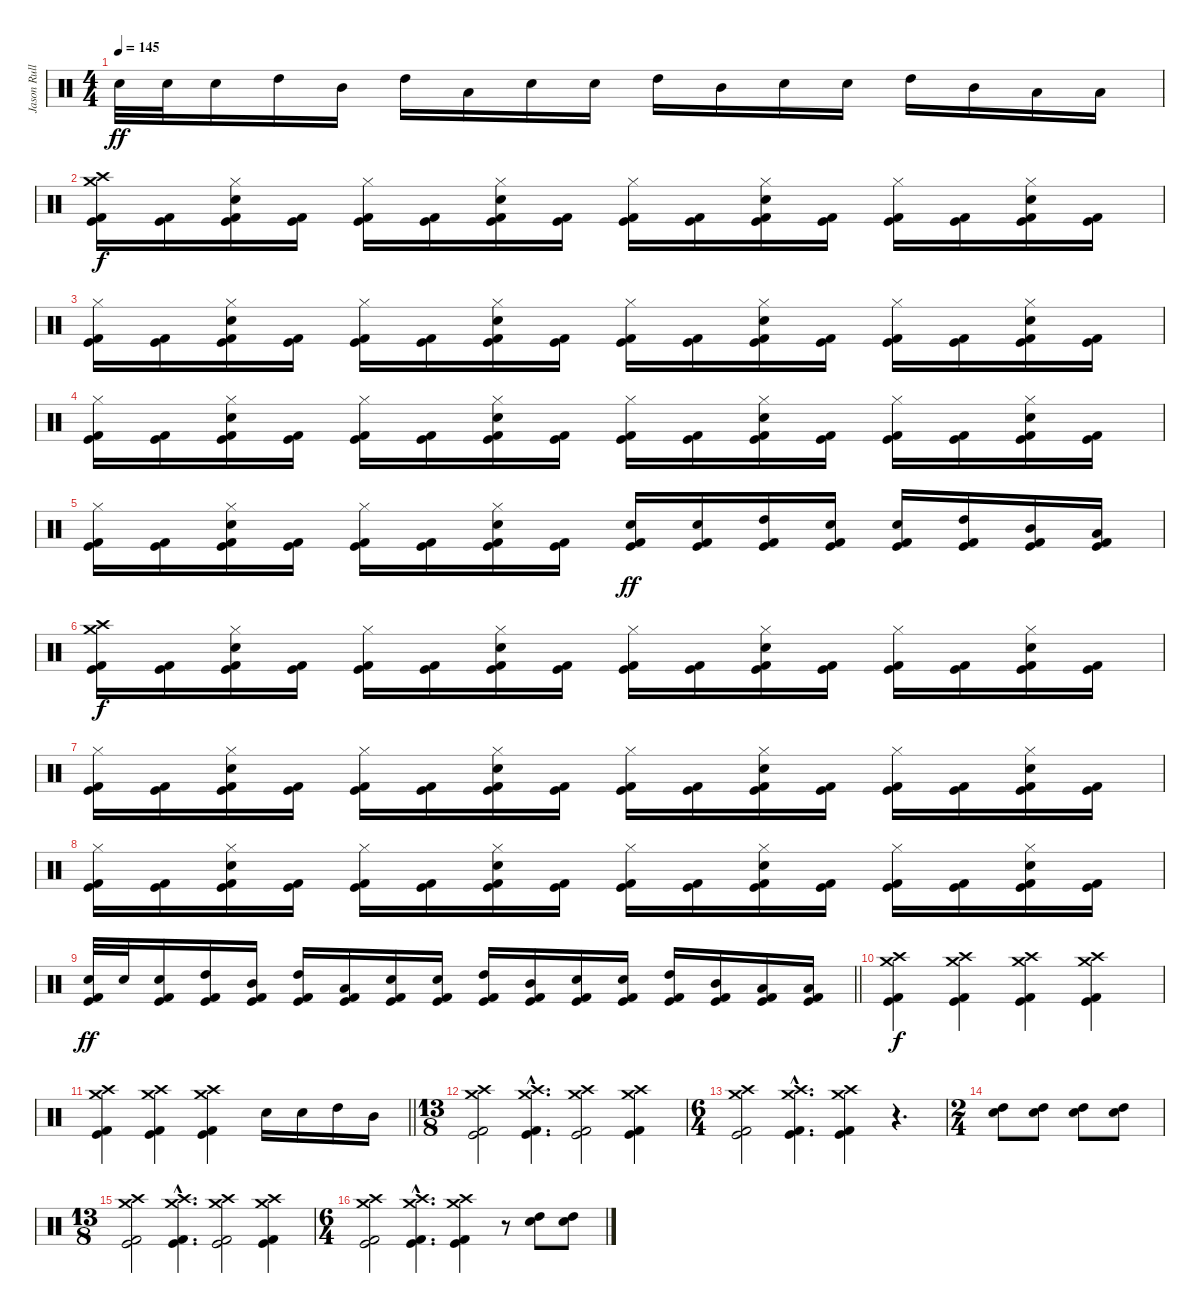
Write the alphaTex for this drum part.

\track ("Jason Rullo" "Jason Rull") {instrument percussion}
\staff {score}
\articulation defaults
\ts (4 4)
\tempo 145
\clef neutral
\ks c "Electric Snare (hit)".32{dy ff} "Electric Snare (hit)".32 "Electric Snare (hit)".16 "High Tom (hit)".16 "Mid Tom (hit)".16 "High Tom (hit)".16 "Low Tom (hit)".16 "Electric Snare (hit)".16 "Electric Snare (hit)".16 "High Tom (hit)".16 "Mid Tom (hit)".16 "Electric Snare (hit)".16 "Electric Snare (hit)".16 "High Tom (hit)".16 "Mid Tom (hit)".16 "Low Tom (hit)".16 "Low Tom (hit)".16
|
("Crash medium (hit)" "Crash high (hit)" "Kick (hit) 2" "Kick (hit)").16{dy f} ("Kick (hit) 2" "Kick (hit)").16 ("Hi-Hat (closed)" "Electric Snare (hit)" "Kick (hit) 2" "Kick (hit)").16 ("Kick (hit) 2" "Kick (hit)").16 ("Hi-Hat (closed)" "Kick (hit) 2" "Kick (hit)").16 ("Kick (hit) 2" "Kick (hit)").16 ("Hi-Hat (closed)" "Electric Snare (hit)" "Kick (hit) 2" "Kick (hit)").16 ("Kick (hit) 2" "Kick (hit)").16 ("Hi-Hat (closed)" "Kick (hit) 2" "Kick (hit)").16 ("Kick (hit) 2" "Kick (hit)").16 ("Hi-Hat (closed)" "Electric Snare (hit)" "Kick (hit) 2" "Kick (hit)").16 ("Kick (hit) 2" "Kick (hit)").16 ("Hi-Hat (closed)" "Kick (hit) 2" "Kick (hit)").16 ("Kick (hit) 2" "Kick (hit)").16 ("Hi-Hat (closed)" "Electric Snare (hit)" "Kick (hit) 2" "Kick (hit)").16 ("Kick (hit) 2" "Kick (hit)").16 |
("Hi-Hat (closed)" "Kick (hit) 2" "Kick (hit)").16 ("Kick (hit) 2" "Kick (hit)").16 ("Hi-Hat (closed)" "Electric Snare (hit)" "Kick (hit) 2" "Kick (hit)").16 ("Kick (hit) 2" "Kick (hit)").16 ("Hi-Hat (closed)" "Kick (hit) 2" "Kick (hit)").16 ("Kick (hit) 2" "Kick (hit)").16 ("Hi-Hat (closed)" "Electric Snare (hit)" "Kick (hit) 2" "Kick (hit)").16 ("Kick (hit) 2" "Kick (hit)").16 ("Hi-Hat (closed)" "Kick (hit) 2" "Kick (hit)").16 ("Kick (hit) 2" "Kick (hit)").16 ("Hi-Hat (closed)" "Electric Snare (hit)" "Kick (hit) 2" "Kick (hit)").16 ("Kick (hit) 2" "Kick (hit)").16 ("Hi-Hat (closed)" "Kick (hit) 2" "Kick (hit)").16 ("Kick (hit) 2" "Kick (hit)").16 ("Hi-Hat (closed)" "Electric Snare (hit)" "Kick (hit) 2" "Kick (hit)").16 ("Kick (hit) 2" "Kick (hit)").16 |
("Hi-Hat (closed)" "Kick (hit) 2" "Kick (hit)").16 ("Kick (hit) 2" "Kick (hit)").16 ("Hi-Hat (closed)" "Electric Snare (hit)" "Kick (hit) 2" "Kick (hit)").16 ("Kick (hit) 2" "Kick (hit)").16 ("Hi-Hat (closed)" "Kick (hit) 2" "Kick (hit)").16 ("Kick (hit) 2" "Kick (hit)").16 ("Hi-Hat (closed)" "Electric Snare (hit)" "Kick (hit) 2" "Kick (hit)").16 ("Kick (hit) 2" "Kick (hit)").16 ("Hi-Hat (closed)" "Kick (hit) 2" "Kick (hit)").16 ("Kick (hit) 2" "Kick (hit)").16 ("Hi-Hat (closed)" "Electric Snare (hit)" "Kick (hit) 2" "Kick (hit)").16 ("Kick (hit) 2" "Kick (hit)").16 ("Hi-Hat (closed)" "Kick (hit) 2" "Kick (hit)").16 ("Kick (hit) 2" "Kick (hit)").16 ("Hi-Hat (closed)" "Electric Snare (hit)" "Kick (hit) 2" "Kick (hit)").16 ("Kick (hit) 2" "Kick (hit)").16 |
("Hi-Hat (closed)" "Kick (hit) 2" "Kick (hit)").16 ("Kick (hit) 2" "Kick (hit)").16 ("Hi-Hat (closed)" "Electric Snare (hit)" "Kick (hit) 2" "Kick (hit)").16 ("Kick (hit) 2" "Kick (hit)").16 ("Hi-Hat (closed)" "Kick (hit) 2" "Kick (hit)").16 ("Kick (hit) 2" "Kick (hit)").16 ("Hi-Hat (closed)" "Electric Snare (hit)" "Kick (hit) 2" "Kick (hit)").16 ("Kick (hit) 2" "Kick (hit)").16 ("Electric Snare (hit)" "Kick (hit) 2" "Kick (hit)").16{dy ff} ("Electric Snare (hit)" "Kick (hit) 2" "Kick (hit)").16 ("High Tom (hit)" "Kick (hit) 2" "Kick (hit)").16 ("Electric Snare (hit)" "Kick (hit) 2" "Kick (hit)").16 ("Electric Snare (hit)" "Kick (hit) 2" "Kick (hit)").16 ("High Tom (hit)" "Kick (hit) 2" "Kick (hit)").16 ("Mid Tom (hit)" "Kick (hit) 2" "Kick (hit)").16 ("Low Tom (hit)" "Kick (hit) 2" "Kick (hit)").16 |
("Crash medium (hit)" "Crash high (hit)" "Kick (hit) 2" "Kick (hit)").16{dy f} ("Kick (hit) 2" "Kick (hit)").16 ("Hi-Hat (closed)" "Electric Snare (hit)" "Kick (hit) 2" "Kick (hit)").16 ("Kick (hit) 2" "Kick (hit)").16 ("Hi-Hat (closed)" "Kick (hit) 2" "Kick (hit)").16 ("Kick (hit) 2" "Kick (hit)").16 ("Hi-Hat (closed)" "Electric Snare (hit)" "Kick (hit) 2" "Kick (hit)").16 ("Kick (hit) 2" "Kick (hit)").16 ("Hi-Hat (closed)" "Kick (hit) 2" "Kick (hit)").16 ("Kick (hit) 2" "Kick (hit)").16 ("Hi-Hat (closed)" "Electric Snare (hit)" "Kick (hit) 2" "Kick (hit)").16 ("Kick (hit) 2" "Kick (hit)").16 ("Hi-Hat (closed)" "Kick (hit) 2" "Kick (hit)").16 ("Kick (hit) 2" "Kick (hit)").16 ("Hi-Hat (closed)" "Electric Snare (hit)" "Kick (hit) 2" "Kick (hit)").16 ("Kick (hit) 2" "Kick (hit)").16 |
("Hi-Hat (closed)" "Kick (hit) 2" "Kick (hit)").16 ("Kick (hit) 2" "Kick (hit)").16 ("Hi-Hat (closed)" "Electric Snare (hit)" "Kick (hit) 2" "Kick (hit)").16 ("Kick (hit) 2" "Kick (hit)").16 ("Hi-Hat (closed)" "Kick (hit) 2" "Kick (hit)").16 ("Kick (hit) 2" "Kick (hit)").16 ("Hi-Hat (closed)" "Electric Snare (hit)" "Kick (hit) 2" "Kick (hit)").16 ("Kick (hit) 2" "Kick (hit)").16 ("Hi-Hat (closed)" "Kick (hit) 2" "Kick (hit)").16 ("Kick (hit) 2" "Kick (hit)").16 ("Hi-Hat (closed)" "Electric Snare (hit)" "Kick (hit) 2" "Kick (hit)").16 ("Kick (hit) 2" "Kick (hit)").16 ("Hi-Hat (closed)" "Kick (hit) 2" "Kick (hit)").16 ("Kick (hit) 2" "Kick (hit)").16 ("Hi-Hat (closed)" "Electric Snare (hit)" "Kick (hit) 2" "Kick (hit)").16 ("Kick (hit) 2" "Kick (hit)").16 |
("Hi-Hat (closed)" "Kick (hit) 2" "Kick (hit)").16 ("Kick (hit) 2" "Kick (hit)").16 ("Hi-Hat (closed)" "Electric Snare (hit)" "Kick (hit) 2" "Kick (hit)").16 ("Kick (hit) 2" "Kick (hit)").16 ("Hi-Hat (closed)" "Kick (hit) 2" "Kick (hit)").16 ("Kick (hit) 2" "Kick (hit)").16 ("Hi-Hat (closed)" "Electric Snare (hit)" "Kick (hit) 2" "Kick (hit)").16 ("Kick (hit) 2" "Kick (hit)").16 ("Hi-Hat (closed)" "Kick (hit) 2" "Kick (hit)").16 ("Kick (hit) 2" "Kick (hit)").16 ("Hi-Hat (closed)" "Electric Snare (hit)" "Kick (hit) 2" "Kick (hit)").16 ("Kick (hit) 2" "Kick (hit)").16 ("Hi-Hat (closed)" "Kick (hit) 2" "Kick (hit)").16 ("Kick (hit) 2" "Kick (hit)").16 ("Hi-Hat (closed)" "Electric Snare (hit)" "Kick (hit) 2" "Kick (hit)").16 ("Kick (hit) 2" "Kick (hit)").16 |
\barLineRight lightlight
("Electric Snare (hit)" "Kick (hit)" "Kick (hit) 2").32{dy ff} "Electric Snare (hit)".32 ("Electric Snare (hit)" "Kick (hit)" "Kick (hit) 2").16 ("High Tom (hit)" "Kick (hit)" "Kick (hit) 2").16 ("Mid Tom (hit)" "Kick (hit)" "Kick (hit) 2").16 ("High Tom (hit)" "Kick (hit)" "Kick (hit) 2").16 ("Low Tom (hit)" "Kick (hit)" "Kick (hit) 2").16 ("Electric Snare (hit)" "Kick (hit)" "Kick (hit) 2").16 ("Electric Snare (hit)" "Kick (hit)" "Kick (hit) 2").16 ("High Tom (hit)" "Kick (hit)" "Kick (hit) 2").16 ("Mid Tom (hit)" "Kick (hit)" "Kick (hit) 2").16 ("Electric Snare (hit)" "Kick (hit)" "Kick (hit) 2").16 ("Electric Snare (hit)" "Kick (hit)" "Kick (hit) 2").16 ("High Tom (hit)" "Kick (hit)" "Kick (hit) 2").16 ("Mid Tom (hit)" "Kick (hit)" "Kick (hit) 2").16 ("Low Tom (hit)" "Kick (hit)" "Kick (hit) 2").16 ("Low Tom (hit)" "Kick (hit)" "Kick (hit) 2").16 |
("Crash medium (hit)" "Crash high (hit)" "Kick (hit) 2" "Kick (hit)").4{dy f} ("Crash medium (hit)" "Crash high (hit)" "Kick (hit) 2" "Kick (hit)").4 ("Crash medium (hit)" "Crash high (hit)" "Kick (hit) 2" "Kick (hit)").4 ("Crash medium (hit)" "Crash high (hit)" "Kick (hit) 2" "Kick (hit)").4 |
\barLineRight lightlight
("Crash medium (hit)" "Crash high (hit)" "Kick (hit) 2" "Kick (hit)").4 ("Crash medium (hit)" "Crash high (hit)" "Kick (hit) 2" "Kick (hit)").4 ("Crash medium (hit)" "Crash high (hit)" "Kick (hit) 2" "Kick (hit)").4 "Electric Snare (hit)".16 "Electric Snare (hit)".16 "High Tom (hit)".16 "Mid Tom (hit)".16 |
\ts (13 8)
("Crash medium (hit)" "Crash high (hit)" "Kick (hit) 2" "Kick (hit)").2 ("Crash medium (hit)"{hac} "Crash high (hit)"{hac} "Kick (hit) 2"{hac} "Kick (hit)"{hac}).4{d} ("Crash medium (hit)" "Crash high (hit)" "Kick (hit) 2" "Kick (hit)").2 ("Crash medium (hit)" "Crash high (hit)" "Kick (hit) 2" "Kick (hit)").4 |
\ts (6 4)
("Crash medium (hit)" "Crash high (hit)" "Kick (hit) 2" "Kick (hit)").2 ("Crash medium (hit)"{hac} "Crash high (hit)"{hac} "Kick (hit) 2"{hac} "Kick (hit)"{hac}).4{d} ("Crash medium (hit)" "Crash high (hit)" "Kick (hit) 2" "Kick (hit)").4 r.4{d} |
\ts (2 4)
("High Tom (hit)" "Electric Snare (hit)").8 ("High Tom (hit)" "Electric Snare (hit)").8 ("High Tom (hit)" "Electric Snare (hit)").8 ("High Tom (hit)" "Electric Snare (hit)").8 |
\ts (13 8)
("Crash medium (hit)" "Crash high (hit)" "Kick (hit) 2" "Kick (hit)").2 ("Crash medium (hit)"{hac} "Crash high (hit)"{hac} "Kick (hit) 2"{hac} "Kick (hit)"{hac}).4{d} ("Crash medium (hit)" "Crash high (hit)" "Kick (hit) 2" "Kick (hit)").2 ("Crash medium (hit)" "Crash high (hit)" "Kick (hit) 2" "Kick (hit)").4 |
\ts (6 4)
("Crash medium (hit)" "Crash high (hit)" "Kick (hit) 2" "Kick (hit)").2 ("Crash medium (hit)"{hac} "Crash high (hit)"{hac} "Kick (hit) 2"{hac} "Kick (hit)"{hac}).4{d} ("Crash medium (hit)" "Crash high (hit)" "Kick (hit) 2" "Kick (hit)").4 r.8 ("High Tom (hit)" "Electric Snare (hit)").8 ("High Tom (hit)" "Electric Snare (hit)").8
